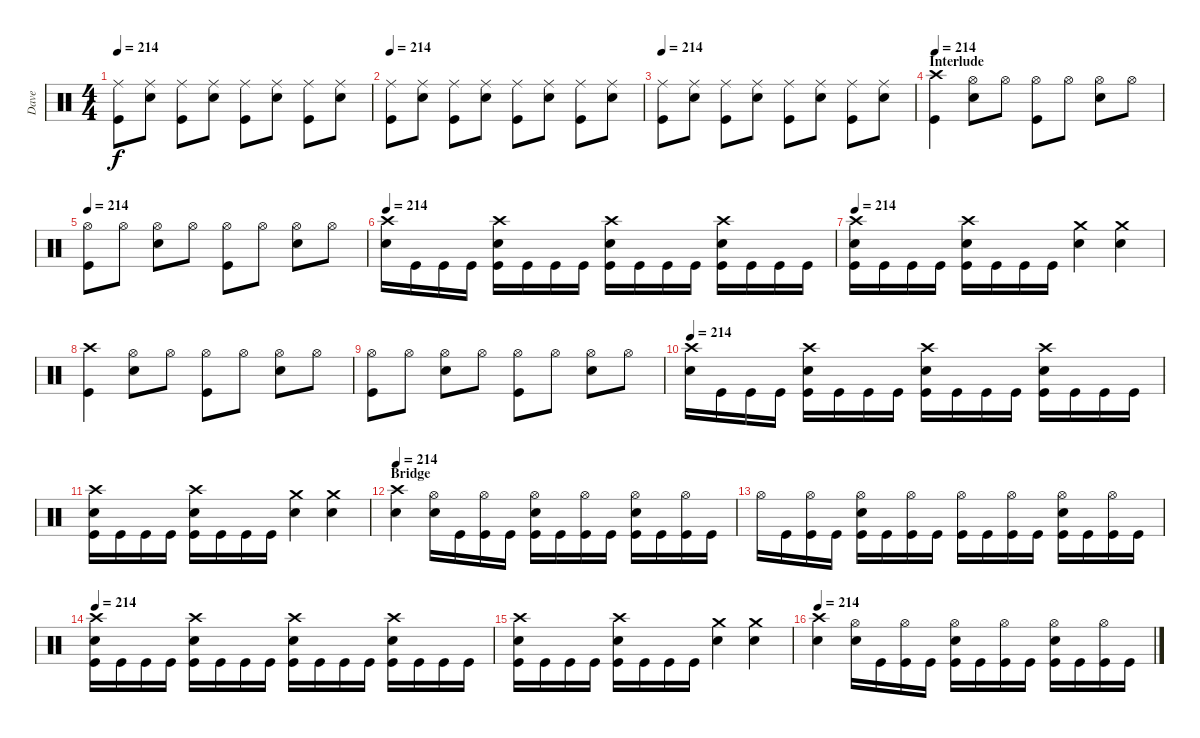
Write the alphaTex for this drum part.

\track ("Dave" "Dave") {instrument percussion}
\staff {score}
\articulation defaults
\ts (4 4)
\tempo 214
\clef neutral
\ks c
("Ride (middle)" "Kick (hit)").8{dy f} ("Ride (middle)" "Snare (hit) 2").8 ("Ride (middle)" "Kick (hit)").8 ("Ride (middle)" "Snare (hit) 2").8 ("Ride (middle)" "Kick (hit)").8 ("Ride (middle)" "Snare (hit) 2").8 ("Ride (middle)" "Kick (hit)").8 ("Ride (middle)" "Snare (hit) 2").8 |
\tempo 214
("Ride (middle)" "Kick (hit)").8 ("Ride (middle)" "Snare (hit) 2").8 ("Ride (middle)" "Kick (hit)").8 ("Ride (middle)" "Snare (hit) 2").8 ("Ride (middle)" "Kick (hit)").8 ("Ride (middle)" "Snare (hit) 2").8 ("Ride (middle)" "Kick (hit)").8 ("Ride (middle)" "Snare (hit) 2").8 |
\tempo 214
("Ride (middle)" "Kick (hit)").8 ("Ride (middle)" "Snare (hit) 2").8 ("Ride (middle)" "Kick (hit)").8 ("Ride (middle)" "Snare (hit) 2").8 ("Ride (middle)" "Kick (hit)").8 ("Ride (middle)" "Snare (hit) 2").8 ("Ride (middle)" "Kick (hit)").8 ("Ride (middle)" "Snare (hit) 2").8 |
\section ("" "Interlude")
\tempo 214
("Crash high (hit)" "Kick (hit)").4 ("Hi-Hat (open)" "Snare (hit) 2").8 "Hi-Hat (open)".8 ("Hi-Hat (open)" "Kick (hit)").8 "Hi-Hat (open)".8 ("Hi-Hat (open)" "Snare (hit) 2").8 "Hi-Hat (open)".8 |
\tempo 214
("Hi-Hat (open)" "Kick (hit)").8 "Hi-Hat (open)".8 ("Hi-Hat (open)" "Snare (hit) 2").8 "Hi-Hat (open)".8 ("Hi-Hat (open)" "Kick (hit)").8 "Hi-Hat (open)".8 ("Hi-Hat (open)" "Snare (hit) 2").8 "Hi-Hat (open)".8 |
\tempo 214
("Crash high (hit)" "Snare (hit) 2").16 "Kick (hit)".16 "Kick (hit)".16 "Kick (hit)".16 ("Crash high (hit)" "Snare (hit) 2" "Kick (hit)").16 "Kick (hit)".16 "Kick (hit)".16 "Kick (hit)".16 ("Crash high (hit)" "Snare (hit) 2" "Kick (hit)").16 "Kick (hit)".16 "Kick (hit)".16 "Kick (hit)".16 ("Crash high (hit)" "Snare (hit) 2" "Kick (hit)").16 "Kick (hit)".16 "Kick (hit)".16 "Kick (hit)".16 |
\tempo 214
("Crash high (hit)" "Snare (hit) 2" "Kick (hit)").16 "Kick (hit)".16 "Kick (hit)".16 "Kick (hit)".16 ("Crash high (hit)" "Snare (hit) 2" "Kick (hit)").16 "Kick (hit)".16 "Kick (hit)".16 "Kick (hit)".16 ("Crash medium (hit)" "Snare (hit) 2").4 ("Crash medium (hit)" "Snare (hit) 2").4 |
("Crash high (hit)" "Kick (hit)").4 ("Hi-Hat (open)" "Snare (hit) 2").8 "Hi-Hat (open)".8 ("Hi-Hat (open)" "Kick (hit)").8 "Hi-Hat (open)".8 ("Hi-Hat (open)" "Snare (hit) 2").8 "Hi-Hat (open)".8 |
("Hi-Hat (open)" "Kick (hit)").8 "Hi-Hat (open)".8 ("Hi-Hat (open)" "Snare (hit) 2").8 "Hi-Hat (open)".8 ("Hi-Hat (open)" "Kick (hit)").8 "Hi-Hat (open)".8 ("Hi-Hat (open)" "Snare (hit) 2").8 "Hi-Hat (open)".8 |
\tempo 214
("Crash high (hit)" "Snare (hit) 2").16 "Kick (hit)".16 "Kick (hit)".16 "Kick (hit)".16 ("Crash high (hit)" "Snare (hit) 2" "Kick (hit)").16 "Kick (hit)".16 "Kick (hit)".16 "Kick (hit)".16 ("Crash high (hit)" "Snare (hit) 2" "Kick (hit)").16 "Kick (hit)".16 "Kick (hit)".16 "Kick (hit)".16 ("Crash high (hit)" "Snare (hit) 2" "Kick (hit)").16 "Kick (hit)".16 "Kick (hit)".16 "Kick (hit)".16 |
("Crash high (hit)" "Snare (hit) 2" "Kick (hit)").16 "Kick (hit)".16 "Kick (hit)".16 "Kick (hit)".16 ("Crash high (hit)" "Snare (hit) 2" "Kick (hit)").16 "Kick (hit)".16 "Kick (hit)".16 "Kick (hit)".16 ("Crash medium (hit)" "Snare (hit) 2").4 ("Crash medium (hit)" "Snare (hit) 2").4 |
\section ("" "Bridge")
\tempo 214
("Crash high (hit)" "Snare (hit) 2").4 ("Hi-Hat (open)" "Snare (hit) 2").16 "Kick (hit)".16 ("Hi-Hat (open)" "Kick (hit)").16 "Kick (hit)".16 ("Hi-Hat (open)" "Snare (hit) 2" "Kick (hit)").16 "Kick (hit)".16 ("Hi-Hat (open)" "Kick (hit)").16 "Kick (hit)".16 ("Hi-Hat (open)" "Snare (hit) 2" "Kick (hit)").16 "Kick (hit)".16 ("Hi-Hat (open)" "Kick (hit)").16 "Kick (hit)".16 |
"Hi-Hat (open)".16 "Kick (hit)".16 ("Hi-Hat (open)" "Kick (hit)").16 "Kick (hit)".16 ("Hi-Hat (open)" "Snare (hit) 2" "Kick (hit)").16 "Kick (hit)".16 ("Hi-Hat (open)" "Kick (hit)").16 "Kick (hit)".16 ("Hi-Hat (open)" "Kick (hit)").16 "Kick (hit)".16 ("Hi-Hat (open)" "Kick (hit)").16 "Kick (hit)".16 ("Hi-Hat (open)" "Snare (hit) 2" "Kick (hit)").16 "Kick (hit)".16 ("Hi-Hat (open)" "Kick (hit)").16 "Kick (hit)".16 |
\tempo 214
("Crash high (hit)" "Snare (hit) 2" "Kick (hit)").16 "Kick (hit)".16 "Kick (hit)".16 "Kick (hit)".16 ("Crash high (hit)" "Snare (hit) 2" "Kick (hit)").16 "Kick (hit)".16 "Kick (hit)".16 "Kick (hit)".16 ("Crash high (hit)" "Snare (hit) 2" "Kick (hit)").16 "Kick (hit)".16 "Kick (hit)".16 "Kick (hit)".16 ("Crash high (hit)" "Snare (hit) 2" "Kick (hit)").16 "Kick (hit)".16 "Kick (hit)".16 "Kick (hit)".16 |
("Crash high (hit)" "Snare (hit) 2" "Kick (hit)").16 "Kick (hit)".16 "Kick (hit)".16 "Kick (hit)".16 ("Crash high (hit)" "Snare (hit) 2" "Kick (hit)").16 "Kick (hit)".16 "Kick (hit)".16 "Kick (hit)".16 ("Crash medium (hit)" "Snare (hit) 2").4 ("Crash medium (hit)" "Snare (hit) 2").4 |
\tempo 214
("Crash high (hit)" "Snare (hit) 2").4 ("Hi-Hat (open)" "Snare (hit) 2").16 "Kick (hit)".16 ("Hi-Hat (open)" "Kick (hit)").16 "Kick (hit)".16 ("Hi-Hat (open)" "Snare (hit) 2" "Kick (hit)").16 "Kick (hit)".16 ("Hi-Hat (open)" "Kick (hit)").16 "Kick (hit)".16 ("Hi-Hat (open)" "Snare (hit) 2" "Kick (hit)").16 "Kick (hit)".16 ("Hi-Hat (open)" "Kick (hit)").16 "Kick (hit)".16
